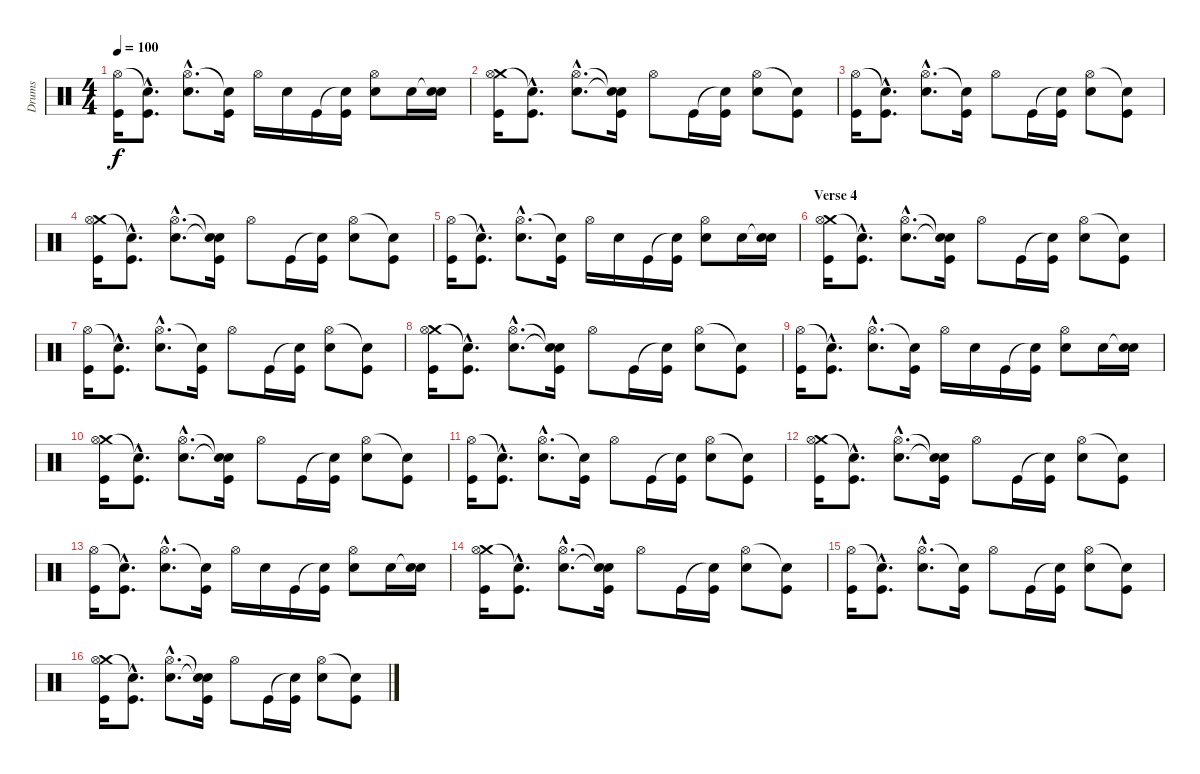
\track ("Drums" "Drums") {instrument percussion}
\staff {score}
\articulation defaults
\ts (4 4)
\tempo 100
\clef neutral
\ks c
("Hi-Hat (open)" "Kick (hit)").16{dy f} ("Snare (hit)"{hac t} "Kick (hit)"{hac}).8{d} ("Hi-Hat (open)"{hac} "Electric Snare (hit)"{hac}).8{d} ("Snare (hit)"{t} "Kick (hit)").16 "Hi-Hat (open)".16 "Electric Snare (hit)".16 "Kick (hit)".16 ("Snare (hit)"{t} "Kick (hit)").16 ("Hi-Hat (open)" "Electric Snare (hit)").8 "Electric Snare (hit)".16 ("Snare (hit)"{t} "Electric Snare (hit)").16 |
("Crash medium (hit)" "Hi-Hat (open)" "Kick (hit)").16 ("Snare (hit)"{hac t} "Kick (hit)"{hac}).8{d} ("Hi-Hat (open)"{hac} "Electric Snare (hit)"{hac}).8{d} ("Snare (hit)"{t} "Snare (hit)"{t} "Kick (hit)").16 "Hi-Hat (open)".8 "Kick (hit)".16 ("Snare (hit)"{t} "Kick (hit)").16 ("Hi-Hat (open)" "Electric Snare (hit)").8 ("Snare (hit)"{t} "Kick (hit)").8 |
("Hi-Hat (open)" "Kick (hit)").16 ("Snare (hit)"{hac t} "Kick (hit)"{hac}).8{d} ("Hi-Hat (open)"{hac} "Electric Snare (hit)"{hac}).8{d} ("Snare (hit)"{t} "Kick (hit)").16 "Hi-Hat (open)".8 "Kick (hit)".16 ("Snare (hit)"{t} "Kick (hit)").16 ("Hi-Hat (open)" "Electric Snare (hit)").8 ("Snare (hit)"{t} "Kick (hit)").8 |
("Crash medium (hit)" "Hi-Hat (open)" "Kick (hit)").16 ("Snare (hit)"{hac t} "Kick (hit)"{hac}).8{d} ("Hi-Hat (open)"{hac} "Electric Snare (hit)"{hac}).8{d} ("Snare (hit)"{t} "Snare (hit)"{t} "Kick (hit)").16 "Hi-Hat (open)".8 "Kick (hit)".16 ("Snare (hit)"{t} "Kick (hit)").16 ("Hi-Hat (open)" "Electric Snare (hit)").8 ("Snare (hit)"{t} "Kick (hit)").8 |
("Hi-Hat (open)" "Kick (hit)").16 ("Snare (hit)"{hac t} "Kick (hit)"{hac}).8{d} ("Hi-Hat (open)"{hac} "Electric Snare (hit)"{hac}).8{d} ("Snare (hit)"{t} "Kick (hit)").16 "Hi-Hat (open)".16 "Electric Snare (hit)".16 "Kick (hit)".16 ("Snare (hit)"{t} "Kick (hit)").16 ("Hi-Hat (open)" "Electric Snare (hit)").8 "Electric Snare (hit)".16 ("Snare (hit)"{t} "Electric Snare (hit)").16 |
\section ("" "Verse 4")
("Crash medium (hit)" "Hi-Hat (open)" "Kick (hit)").16 ("Snare (hit)"{hac t} "Kick (hit)"{hac}).8{d} ("Hi-Hat (open)"{hac} "Electric Snare (hit)"{hac}).8{d} ("Snare (hit)"{t} "Snare (hit)"{t} "Kick (hit)").16 "Hi-Hat (open)".8 "Kick (hit)".16 ("Snare (hit)"{t} "Kick (hit)").16 ("Hi-Hat (open)" "Electric Snare (hit)").8 ("Snare (hit)"{t} "Kick (hit)").8 |
("Hi-Hat (open)" "Kick (hit)").16 ("Snare (hit)"{hac t} "Kick (hit)"{hac}).8{d} ("Hi-Hat (open)"{hac} "Electric Snare (hit)"{hac}).8{d} ("Snare (hit)"{t} "Kick (hit)").16 "Hi-Hat (open)".8 "Kick (hit)".16 ("Snare (hit)"{t} "Kick (hit)").16 ("Hi-Hat (open)" "Electric Snare (hit)").8 ("Snare (hit)"{t} "Kick (hit)").8 |
("Crash medium (hit)" "Hi-Hat (open)" "Kick (hit)").16 ("Snare (hit)"{hac t} "Kick (hit)"{hac}).8{d} ("Hi-Hat (open)"{hac} "Electric Snare (hit)"{hac}).8{d} ("Snare (hit)"{t} "Snare (hit)"{t} "Kick (hit)").16 "Hi-Hat (open)".8 "Kick (hit)".16 ("Snare (hit)"{t} "Kick (hit)").16 ("Hi-Hat (open)" "Electric Snare (hit)").8 ("Snare (hit)"{t} "Kick (hit)").8 |
("Hi-Hat (open)" "Kick (hit)").16 ("Snare (hit)"{hac t} "Kick (hit)"{hac}).8{d} ("Hi-Hat (open)"{hac} "Electric Snare (hit)"{hac}).8{d} ("Snare (hit)"{t} "Kick (hit)").16 "Hi-Hat (open)".16 "Electric Snare (hit)".16 "Kick (hit)".16 ("Snare (hit)"{t} "Kick (hit)").16 ("Hi-Hat (open)" "Electric Snare (hit)").8 "Electric Snare (hit)".16 ("Snare (hit)"{t} "Electric Snare (hit)").16 |
("Crash medium (hit)" "Hi-Hat (open)" "Kick (hit)").16 ("Snare (hit)"{hac t} "Kick (hit)"{hac}).8{d} ("Hi-Hat (open)"{hac} "Electric Snare (hit)"{hac}).8{d} ("Snare (hit)"{t} "Snare (hit)"{t} "Kick (hit)").16 "Hi-Hat (open)".8 "Kick (hit)".16 ("Snare (hit)"{t} "Kick (hit)").16 ("Hi-Hat (open)" "Electric Snare (hit)").8 ("Snare (hit)"{t} "Kick (hit)").8 |
("Hi-Hat (open)" "Kick (hit)").16 ("Snare (hit)"{hac t} "Kick (hit)"{hac}).8{d} ("Hi-Hat (open)"{hac} "Electric Snare (hit)"{hac}).8{d} ("Snare (hit)"{t} "Kick (hit)").16 "Hi-Hat (open)".8 "Kick (hit)".16 ("Snare (hit)"{t} "Kick (hit)").16 ("Hi-Hat (open)" "Electric Snare (hit)").8 ("Snare (hit)"{t} "Kick (hit)").8 |
("Crash medium (hit)" "Hi-Hat (open)" "Kick (hit)").16 ("Snare (hit)"{hac t} "Kick (hit)"{hac}).8{d} ("Hi-Hat (open)"{hac} "Electric Snare (hit)"{hac}).8{d} ("Snare (hit)"{t} "Snare (hit)"{t} "Kick (hit)").16 "Hi-Hat (open)".8 "Kick (hit)".16 ("Snare (hit)"{t} "Kick (hit)").16 ("Hi-Hat (open)" "Electric Snare (hit)").8 ("Snare (hit)"{t} "Kick (hit)").8 |
("Hi-Hat (open)" "Kick (hit)").16 ("Snare (hit)"{hac t} "Kick (hit)"{hac}).8{d} ("Hi-Hat (open)"{hac} "Electric Snare (hit)"{hac}).8{d} ("Snare (hit)"{t} "Kick (hit)").16 "Hi-Hat (open)".16 "Electric Snare (hit)".16 "Kick (hit)".16 ("Snare (hit)"{t} "Kick (hit)").16 ("Hi-Hat (open)" "Electric Snare (hit)").8 "Electric Snare (hit)".16 ("Snare (hit)"{t} "Electric Snare (hit)").16 |
("Crash medium (hit)" "Hi-Hat (open)" "Kick (hit)").16 ("Snare (hit)"{hac t} "Kick (hit)"{hac}).8{d} ("Hi-Hat (open)"{hac} "Electric Snare (hit)"{hac}).8{d} ("Snare (hit)"{t} "Snare (hit)"{t} "Kick (hit)").16 "Hi-Hat (open)".8 "Kick (hit)".16 ("Snare (hit)"{t} "Kick (hit)").16 ("Hi-Hat (open)" "Electric Snare (hit)").8 ("Snare (hit)"{t} "Kick (hit)").8 |
("Hi-Hat (open)" "Kick (hit)").16 ("Snare (hit)"{hac t} "Kick (hit)"{hac}).8{d} ("Hi-Hat (open)"{hac} "Electric Snare (hit)"{hac}).8{d} ("Snare (hit)"{t} "Kick (hit)").16 "Hi-Hat (open)".8 "Kick (hit)".16 ("Snare (hit)"{t} "Kick (hit)").16 ("Hi-Hat (open)" "Electric Snare (hit)").8 ("Snare (hit)"{t} "Kick (hit)").8 |
("Crash medium (hit)" "Hi-Hat (open)" "Kick (hit)").16 ("Snare (hit)"{hac t} "Kick (hit)"{hac}).8{d} ("Hi-Hat (open)"{hac} "Electric Snare (hit)"{hac}).8{d} ("Snare (hit)"{t} "Snare (hit)"{t} "Kick (hit)").16 "Hi-Hat (open)".8 "Kick (hit)".16 ("Snare (hit)"{t} "Kick (hit)").16 ("Hi-Hat (open)" "Electric Snare (hit)").8 ("Snare (hit)"{t} "Kick (hit)").8
